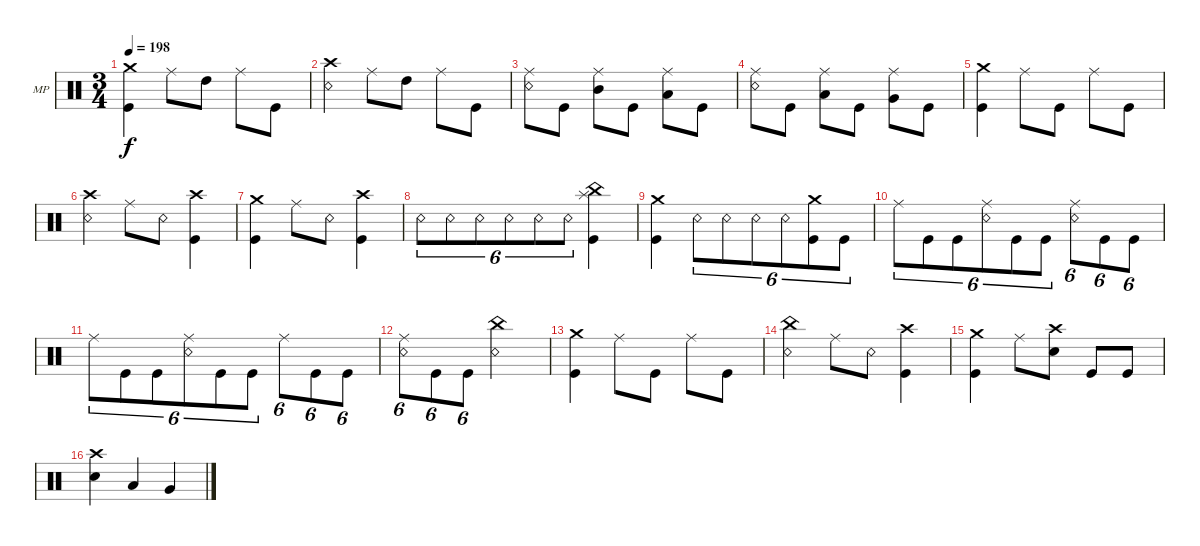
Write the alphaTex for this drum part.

\defaultSystemsLayout 4
\bracketExtendMode groupsimilarinstruments
\firstSystemTrackNameOrientation horizontal
\otherSystemsTrackNameOrientation horizontal
\track ("Mike Portnoy" "MP") {instrument percussion}
\staff {score}
\articulation defaults
\ts (3 4)
\tempo 198
\clef neutral
\ks c
("Crash medium (hit)" "Kick (hit)").4{dy f} "Ride (middle)".8 "High Tom (hit)".8 "Ride (middle)".8 "Kick (hit)".8 |
("Crash high (hit)" "Snare (rim shot)").4 "Ride (middle)".8 "High Tom (hit)".8 "Ride (middle)".8 "Kick (hit)".8 |
("Ride (middle)" "Snare (rim shot)").8 "Kick (hit)".8 ("Ride (middle)" "Mid Tom (hit)").8 "Kick (hit)".8 ("Ride (middle)" "Low Tom (hit)").8 "Kick (hit)".8 |
("Ride (middle)" "Snare (rim shot)").8 "Kick (hit)".8 ("Ride (middle)" "Low Tom (hit)").8 "Kick (hit)".8 ("Ride (middle)" "Very Low Tom (hit)").8 "Kick (hit)".8 |
("Crash medium (hit)" "Kick (hit)").4 "Ride (middle)".8 "Kick (hit)".8 "Ride (middle)".8 "Kick (hit)".8 |
("Crash high (hit)" "Snare (rim shot)").4 "Ride (middle)".8 "Snare (rim shot)".8 ("Crash high (hit)" "Kick (hit)").4 |
("Crash medium (hit)" "Kick (hit)").4 "Ride (middle)".8 "Snare (rim shot)".8 ("Crash high (hit)" "Kick (hit)").4 |
"Snare (rim shot)".8{tu (6 4)} "Snare (rim shot)".8{tu (6 4)} "Snare (rim shot)".8{tu (6 4)} "Snare (rim shot)".8{tu (6 4)} "Snare (rim shot)".8{tu (6 4)} "Snare (rim shot)".8{tu (6 4)} ("China (hit)" "Splash (hit)" "Kick (hit)").4 |
("Crash medium (hit)" "Kick (hit)").4 "Snare (rim shot)".8{tu (6 4)} "Snare (rim shot)".8{tu (6 4)} "Snare (rim shot)".8{tu (6 4)} "Snare (rim shot)".8{tu (6 4)} ("Crash medium (hit)" "Kick (hit)").8{tu (6 4)} "Kick (hit)".8{tu (6 4)} |
"Ride (middle)".8{tu (6 4)} "Kick (hit)".8{tu (6 4)} "Kick (hit)".8{tu (6 4)} ("Ride (middle)" "Snare (rim shot)").8{tu (6 4)} "Kick (hit)".8{tu (6 4)} "Kick (hit)".8{tu (6 4)} ("Ride (middle)" "Snare (rim shot)").8{tu (6 4)} "Kick (hit)".8{tu (6 4)} "Kick (hit)".8{tu (6 4)} |
"Ride (middle)".8{tu (6 4)} "Kick (hit)".8{tu (6 4)} "Kick (hit)".8{tu (6 4)} ("Ride (middle)" "Snare (rim shot)").8{tu (6 4)} "Kick (hit)".8{tu (6 4)} "Kick (hit)".8{tu (6 4)} "Ride (middle)".8{tu (6 4)} "Kick (hit)".8{tu (6 4)} "Kick (hit)".8{tu (6 4)} |
("Ride (middle)" "Snare (rim shot)").8{tu (6 4)} "Kick (hit)".8{tu (6 4)} "Kick (hit)".8{tu (6 4)} ("China (hit)" "Snare (rim shot)").2 |
("Crash medium (hit)" "Kick (hit)").4 "Ride (middle)".8 "Kick (hit)".8 "Ride (middle)".8 "Kick (hit)".8 |
("China (hit)" "Snare (rim shot)").4 "Ride (middle)".8 "Snare (rim shot)".8 ("Crash high (hit)" "Kick (hit)").4 |
("Crash medium (hit)" "Kick (hit)").4 "Ride (middle)".8 ("Crash high (hit)" "Snare (hit) 2").8 "Kick (hit)".8 "Kick (hit)".8 |
("Crash high (hit)" "Snare (hit) 2").4 "Low Tom (hit)".4 "Very Low Tom (hit)".4
